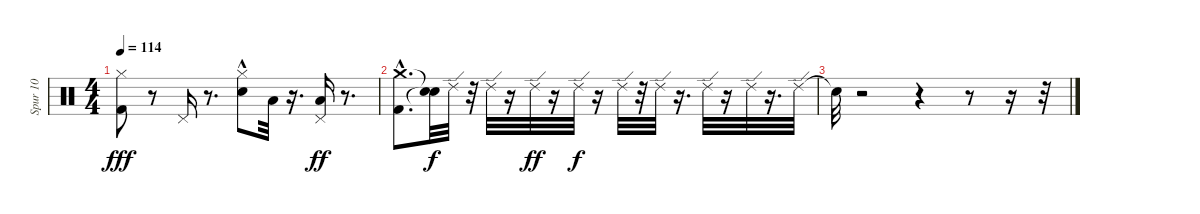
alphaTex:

\track ("Spur 10" "Spur 10") {instrument percussion}
\staff {score}
\articulation defaults
\ts (4 4)
\tempo 114
\clef neutral
\ks c
("Kick (hit) 2" "Hi-Hat (closed)").8{dy fff} r.8 "Pedal Hi-Hat (hit)".16 r.8{d} ("Snare (hit) 2"{hac} "Hi-Hat (closed)").8 "Low Tom (hit)".32 r.16{d} ("Pedal Hi-Hat (hit)" "Low Tom (hit)").16{dy ff} r.8{d} |
("Crash medium (hit)"{hac} "Kick (hit) 2"{hac}).8{d} ("Snare (hit)"{t} "Snare (hit)"{t}).32{dy f} "Ride (edge) 2".32 r.32 "Ride (edge) 2".32 r.16 "Ride (edge) 2".32{dy ff} r.16 "Ride (edge) 2".32{dy f} r.16 "Ride (edge) 2".32 r.32 "Ride (edge) 2".32 r.16{d} "Ride (edge) 2".32 r.16 "Ride (edge) 2".32 r.16{d} "Ride (edge) 2".32 |
"Snare (hit)"{t}.32 r.2 r.4 r.8 r.16 r.32
